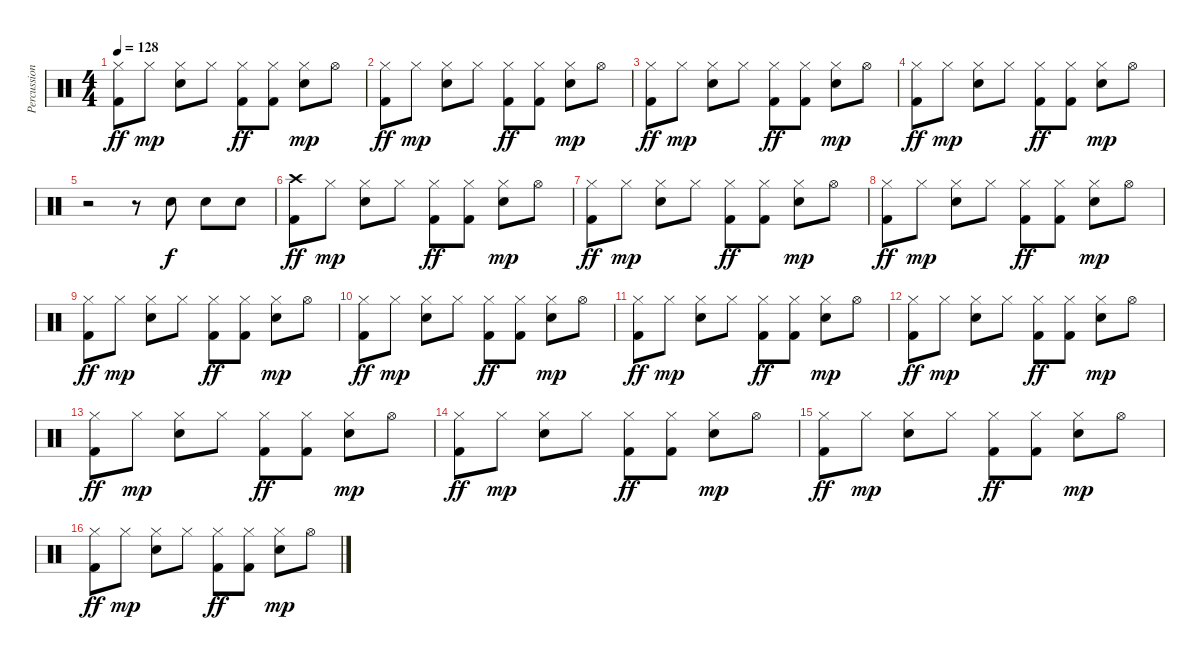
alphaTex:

\track ("Percussion" "Percussion") {instrument percussion}
\staff {score}
\articulation defaults
\ts (4 4)
\tempo 128
\clef neutral
\ks c
("Hi-Hat (closed)" "Kick (hit) 2").8{dy ff} "Hi-Hat (closed)".8{dy mp} ("Hi-Hat (closed)" "Electric Snare (hit)").8 "Hi-Hat (closed)".8 ("Hi-Hat (closed)" "Kick (hit) 2").8{dy ff} ("Hi-Hat (closed)" "Kick (hit) 2").8 ("Hi-Hat (closed)" "Electric Snare (hit)").8{dy mp} "Hi-Hat (open)".8 |
("Hi-Hat (closed)" "Kick (hit) 2").8{dy ff} "Hi-Hat (closed)".8{dy mp} ("Hi-Hat (closed)" "Electric Snare (hit)").8 "Hi-Hat (closed)".8 ("Hi-Hat (closed)" "Kick (hit) 2").8{dy ff} ("Hi-Hat (closed)" "Kick (hit) 2").8 ("Hi-Hat (closed)" "Electric Snare (hit)").8{dy mp} "Hi-Hat (open)".8 |
("Hi-Hat (closed)" "Kick (hit) 2").8{dy ff} "Hi-Hat (closed)".8{dy mp} ("Hi-Hat (closed)" "Electric Snare (hit)").8 "Hi-Hat (closed)".8 ("Hi-Hat (closed)" "Kick (hit) 2").8{dy ff} ("Hi-Hat (closed)" "Kick (hit) 2").8 ("Hi-Hat (closed)" "Electric Snare (hit)").8{dy mp} "Hi-Hat (open)".8 |
("Hi-Hat (closed)" "Kick (hit) 2").8{dy ff} "Hi-Hat (closed)".8{dy mp} ("Hi-Hat (closed)" "Electric Snare (hit)").8 "Hi-Hat (closed)".8 ("Hi-Hat (closed)" "Kick (hit) 2").8{dy ff} ("Hi-Hat (closed)" "Kick (hit) 2").8 ("Hi-Hat (closed)" "Electric Snare (hit)").8{dy mp} "Hi-Hat (open)".8 |
r.2 r.8 "Electric Snare (hit)".8{dy f} "Electric Snare (hit)".8 "Electric Snare (hit)".8 |
("Crash high (hit)" "Kick (hit) 2").8{dy ff} "Hi-Hat (closed)".8{dy mp} ("Hi-Hat (closed)" "Electric Snare (hit)").8 "Hi-Hat (closed)".8 ("Hi-Hat (closed)" "Kick (hit) 2").8{dy ff} ("Hi-Hat (closed)" "Kick (hit) 2").8 ("Hi-Hat (closed)" "Electric Snare (hit)").8{dy mp} "Hi-Hat (open)".8 |
("Hi-Hat (closed)" "Kick (hit) 2").8{dy ff} "Hi-Hat (closed)".8{dy mp} ("Hi-Hat (closed)" "Electric Snare (hit)").8 "Hi-Hat (closed)".8 ("Hi-Hat (closed)" "Kick (hit) 2").8{dy ff} ("Hi-Hat (closed)" "Kick (hit) 2").8 ("Hi-Hat (closed)" "Electric Snare (hit)").8{dy mp} "Hi-Hat (open)".8 |
("Hi-Hat (closed)" "Kick (hit) 2").8{dy ff} "Hi-Hat (closed)".8{dy mp} ("Hi-Hat (closed)" "Electric Snare (hit)").8 "Hi-Hat (closed)".8 ("Hi-Hat (closed)" "Kick (hit) 2").8{dy ff} ("Hi-Hat (closed)" "Kick (hit) 2").8 ("Hi-Hat (closed)" "Electric Snare (hit)").8{dy mp} "Hi-Hat (open)".8 |
("Hi-Hat (closed)" "Kick (hit) 2").8{dy ff} "Hi-Hat (closed)".8{dy mp} ("Hi-Hat (closed)" "Electric Snare (hit)").8 "Hi-Hat (closed)".8 ("Hi-Hat (closed)" "Kick (hit) 2").8{dy ff} ("Hi-Hat (closed)" "Kick (hit) 2").8 ("Hi-Hat (closed)" "Electric Snare (hit)").8{dy mp} "Hi-Hat (open)".8 |
("Hi-Hat (closed)" "Kick (hit) 2").8{dy ff} "Hi-Hat (closed)".8{dy mp} ("Hi-Hat (closed)" "Electric Snare (hit)").8 "Hi-Hat (closed)".8 ("Hi-Hat (closed)" "Kick (hit) 2").8{dy ff} ("Hi-Hat (closed)" "Kick (hit) 2").8 ("Hi-Hat (closed)" "Electric Snare (hit)").8{dy mp} "Hi-Hat (open)".8 |
("Hi-Hat (closed)" "Kick (hit) 2").8{dy ff} "Hi-Hat (closed)".8{dy mp} ("Hi-Hat (closed)" "Electric Snare (hit)").8 "Hi-Hat (closed)".8 ("Hi-Hat (closed)" "Kick (hit) 2").8{dy ff} ("Hi-Hat (closed)" "Kick (hit) 2").8 ("Hi-Hat (closed)" "Electric Snare (hit)").8{dy mp} "Hi-Hat (open)".8 |
("Hi-Hat (closed)" "Kick (hit) 2").8{dy ff} "Hi-Hat (closed)".8{dy mp} ("Hi-Hat (closed)" "Electric Snare (hit)").8 "Hi-Hat (closed)".8 ("Hi-Hat (closed)" "Kick (hit) 2").8{dy ff} ("Hi-Hat (closed)" "Kick (hit) 2").8 ("Hi-Hat (closed)" "Electric Snare (hit)").8{dy mp} "Hi-Hat (open)".8 |
("Hi-Hat (closed)" "Kick (hit) 2").8{dy ff} "Hi-Hat (closed)".8{dy mp} ("Hi-Hat (closed)" "Electric Snare (hit)").8 "Hi-Hat (closed)".8 ("Hi-Hat (closed)" "Kick (hit) 2").8{dy ff} ("Hi-Hat (closed)" "Kick (hit) 2").8 ("Hi-Hat (closed)" "Electric Snare (hit)").8{dy mp} "Hi-Hat (open)".8 |
("Hi-Hat (closed)" "Kick (hit) 2").8{dy ff} "Hi-Hat (closed)".8{dy mp} ("Hi-Hat (closed)" "Electric Snare (hit)").8 "Hi-Hat (closed)".8 ("Hi-Hat (closed)" "Kick (hit) 2").8{dy ff} ("Hi-Hat (closed)" "Kick (hit) 2").8 ("Hi-Hat (closed)" "Electric Snare (hit)").8{dy mp} "Hi-Hat (open)".8 |
("Hi-Hat (closed)" "Kick (hit) 2").8{dy ff} "Hi-Hat (closed)".8{dy mp} ("Hi-Hat (closed)" "Electric Snare (hit)").8 "Hi-Hat (closed)".8 ("Hi-Hat (closed)" "Kick (hit) 2").8{dy ff} ("Hi-Hat (closed)" "Kick (hit) 2").8 ("Hi-Hat (closed)" "Electric Snare (hit)").8{dy mp} "Hi-Hat (open)".8 |
("Hi-Hat (closed)" "Kick (hit) 2").8{dy ff} "Hi-Hat (closed)".8{dy mp} ("Hi-Hat (closed)" "Electric Snare (hit)").8 "Hi-Hat (closed)".8 ("Hi-Hat (closed)" "Kick (hit) 2").8{dy ff} ("Hi-Hat (closed)" "Kick (hit) 2").8 ("Hi-Hat (closed)" "Electric Snare (hit)").8{dy mp} "Hi-Hat (open)".8
